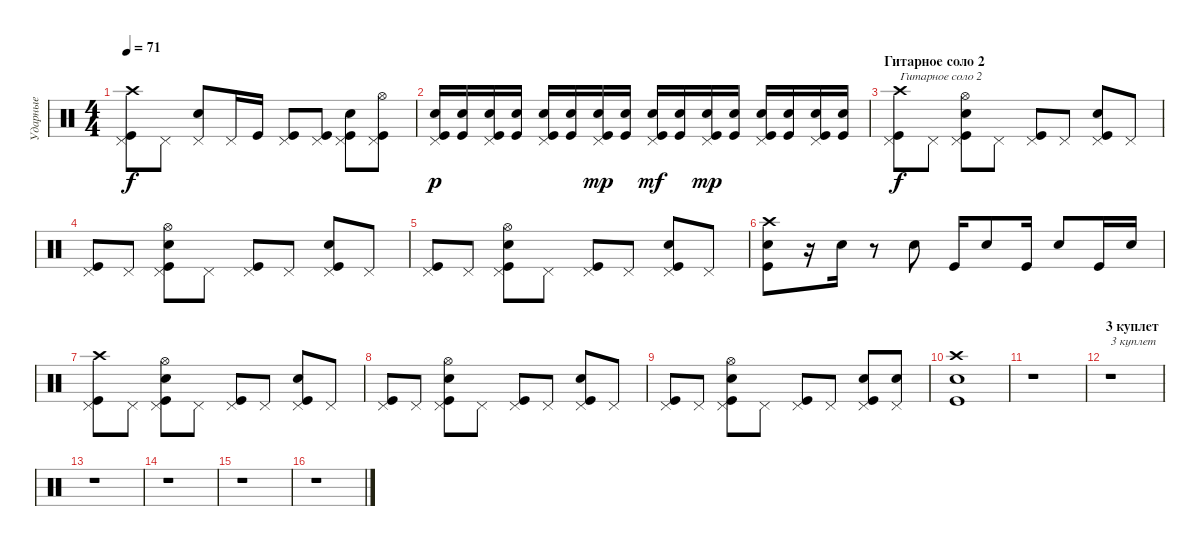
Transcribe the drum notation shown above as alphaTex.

\track ("Ударные" "Ударные") {instrument percussion}
\staff {score}
\articulation defaults
\ts (4 4)
\tempo 71
\clef neutral
\ks c
("Crash high (hit)" "Kick (hit)" "Pedal Hi-Hat (hit)").8{dy f} "Pedal Hi-Hat (hit)".8 ("Snare (hit) 2" "Pedal Hi-Hat (hit)").8 "Pedal Hi-Hat (hit)".16 "Kick (hit)".16 ("Kick (hit)" "Pedal Hi-Hat (hit)").8 ("Kick (hit)" "Pedal Hi-Hat (hit)").8 ("Kick (hit)" "Snare (hit) 2" "Pedal Hi-Hat (hit)").8 ("Hi-Hat (open)" "Kick (hit)" "Pedal Hi-Hat (hit)").8 |
("Snare (hit) 2" "Kick (hit)" "Pedal Hi-Hat (hit)").16{dy p} ("Snare (hit) 2" "Kick (hit)").16 ("Snare (hit) 2" "Kick (hit)" "Pedal Hi-Hat (hit)").16 ("Snare (hit) 2" "Kick (hit)").16 ("Snare (hit) 2" "Kick (hit)" "Pedal Hi-Hat (hit)").16 ("Snare (hit) 2" "Kick (hit)").16 ("Snare (hit) 2" "Kick (hit)" "Pedal Hi-Hat (hit)").16{dy mp} ("Snare (hit) 2" "Kick (hit)").16 ("Snare (hit) 2" "Kick (hit)" "Pedal Hi-Hat (hit)").16{dy mf} ("Snare (hit) 2" "Kick (hit)").16 ("Snare (hit) 2" "Kick (hit)" "Pedal Hi-Hat (hit)").16{dy mp} ("Snare (hit) 2" "Kick (hit)").16 ("Snare (hit) 2" "Kick (hit)" "Pedal Hi-Hat (hit)").16 ("Snare (hit) 2" "Kick (hit)").16 ("Snare (hit) 2" "Kick (hit)" "Pedal Hi-Hat (hit)").16 ("Snare (hit) 2" "Kick (hit)").16 |
\section ("" "Гитарное соло 2")
("Crash high (hit)" "Kick (hit)" "Pedal Hi-Hat (hit)").8{txt "Гитарное соло 2" dy f} "Pedal Hi-Hat (hit)".8 ("Hi-Hat (open)" "Snare (hit) 2" "Kick (hit)" "Pedal Hi-Hat (hit)").8 "Pedal Hi-Hat (hit)".8 ("Kick (hit)" "Pedal Hi-Hat (hit)").8 "Pedal Hi-Hat (hit)".8 ("Kick (hit)" "Snare (hit) 2" "Pedal Hi-Hat (hit)").8 "Pedal Hi-Hat (hit)".8 |
("Kick (hit)" "Pedal Hi-Hat (hit)").8 "Pedal Hi-Hat (hit)".8 ("Hi-Hat (open)" "Snare (hit) 2" "Kick (hit)" "Pedal Hi-Hat (hit)").8 "Pedal Hi-Hat (hit)".8 ("Kick (hit)" "Pedal Hi-Hat (hit)").8 "Pedal Hi-Hat (hit)".8 ("Kick (hit)" "Snare (hit) 2" "Pedal Hi-Hat (hit)").8 "Pedal Hi-Hat (hit)".8 |
("Kick (hit)" "Pedal Hi-Hat (hit)").8 "Pedal Hi-Hat (hit)".8 ("Hi-Hat (open)" "Snare (hit) 2" "Kick (hit)" "Pedal Hi-Hat (hit)").8 "Pedal Hi-Hat (hit)".8 ("Kick (hit)" "Pedal Hi-Hat (hit)").8 "Pedal Hi-Hat (hit)".8 ("Kick (hit)" "Snare (hit) 2" "Pedal Hi-Hat (hit)").8 "Pedal Hi-Hat (hit)".8 |
("Crash high (hit)" "Snare (hit) 2" "Kick (hit)").8 r.16 "Snare (hit) 2".16 r.8 "Snare (hit) 2".8 "Kick (hit)".16 "Snare (hit) 2".8 "Kick (hit)".16 "Snare (hit) 2".8 "Kick (hit)".16 "Snare (hit) 2".16 |
("Crash high (hit)" "Kick (hit)" "Pedal Hi-Hat (hit)").8 "Pedal Hi-Hat (hit)".8 ("Hi-Hat (open)" "Snare (hit) 2" "Kick (hit)" "Pedal Hi-Hat (hit)").8 "Pedal Hi-Hat (hit)".8 ("Kick (hit)" "Pedal Hi-Hat (hit)").8 "Pedal Hi-Hat (hit)".8 ("Kick (hit)" "Snare (hit) 2" "Pedal Hi-Hat (hit)").8 "Pedal Hi-Hat (hit)".8 |
("Kick (hit)" "Pedal Hi-Hat (hit)").8 "Pedal Hi-Hat (hit)".8 ("Hi-Hat (open)" "Snare (hit) 2" "Kick (hit)" "Pedal Hi-Hat (hit)").8 "Pedal Hi-Hat (hit)".8 ("Kick (hit)" "Pedal Hi-Hat (hit)").8 "Pedal Hi-Hat (hit)".8 ("Kick (hit)" "Snare (hit) 2" "Pedal Hi-Hat (hit)").8 "Pedal Hi-Hat (hit)".8 |
("Kick (hit)" "Pedal Hi-Hat (hit)").8 "Pedal Hi-Hat (hit)".8 ("Hi-Hat (open)" "Snare (hit) 2" "Kick (hit)" "Pedal Hi-Hat (hit)").8 "Pedal Hi-Hat (hit)".8 ("Kick (hit)" "Pedal Hi-Hat (hit)").8 "Pedal Hi-Hat (hit)".8 ("Kick (hit)" "Snare (hit) 2" "Pedal Hi-Hat (hit)").8 ("Snare (hit) 2" "Pedal Hi-Hat (hit)").8 |
("Crash high (hit)" "Snare (hit) 2" "Kick (hit)").1 |
r.1 |
\section ("" "3 куплет")
r.1{txt "3 куплет"} |
r.1 |
r.1 |
r.1 |
r.1
